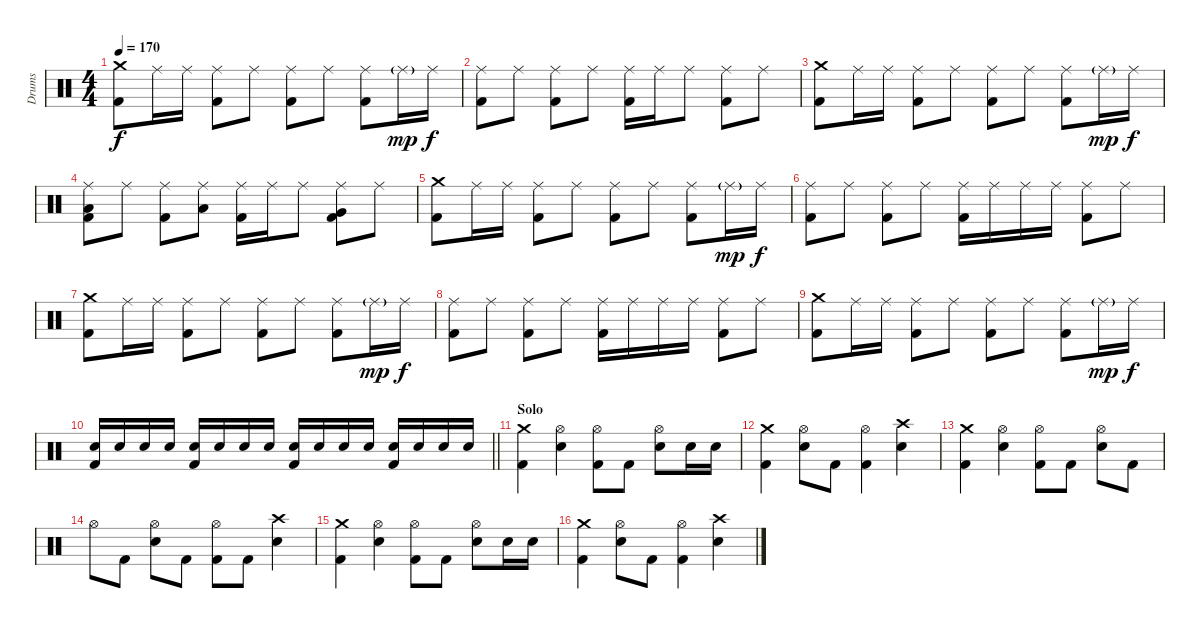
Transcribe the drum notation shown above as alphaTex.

\track ("Drums" "Drums") {instrument percussion}
\staff {score}
\articulation defaults
\ts (4 4)
\tempo 170
\clef neutral
\ks c
("Crash medium (hit)" "Kick (hit) 2").8{dy f} "Ride (middle)".16 "Ride (middle)".16 ("Ride (middle)" "Kick (hit) 2").8 "Ride (middle)".8 ("Ride (middle)" "Kick (hit) 2").8 "Ride (middle)".8 ("Ride (middle)" "Kick (hit) 2").8 "Ride (middle)"{g}.16{dy mp} "Ride (middle)".16{dy f} |
("Ride (middle)" "Kick (hit) 2").8 "Ride (middle)".8 ("Ride (middle)" "Kick (hit) 2").8 "Ride (middle)".8 ("Ride (middle)" "Kick (hit) 2").16 "Ride (middle)".16 "Ride (middle)".8 ("Ride (middle)" "Kick (hit) 2").8 "Ride (middle)".8 |
("Crash medium (hit)" "Kick (hit) 2").8 "Ride (middle)".16 "Ride (middle)".16 ("Ride (middle)" "Kick (hit) 2").8 "Ride (middle)".8 ("Ride (middle)" "Kick (hit) 2").8 "Ride (middle)".8 ("Ride (middle)" "Kick (hit) 2").8 "Ride (middle)"{g}.16{dy mp} "Ride (middle)".16{dy f} |
("Ride (middle)" "Low Floor Tom (hit)" "Kick (hit) 2").8 "Ride (middle)".8 ("Ride (middle)" "Kick (hit) 2").8 ("Ride (middle)" "Low Tom (hit)").8 ("Ride (middle)" "Kick (hit) 2").16 "Ride (middle)".16 "Ride (middle)".8 ("Ride (middle)" "Very Low Tom (hit)" "Kick (hit) 2").8 "Ride (middle)".8 |
("Crash medium (hit)" "Kick (hit) 2").8 "Ride (middle)".16 "Ride (middle)".16 ("Ride (middle)" "Kick (hit) 2").8 "Ride (middle)".8 ("Ride (middle)" "Kick (hit) 2").8 "Ride (middle)".8 ("Ride (middle)" "Kick (hit) 2").8 "Ride (middle)"{g}.16{dy mp} "Ride (middle)".16{dy f} |
("Ride (middle)" "Kick (hit) 2").8 "Ride (middle)".8 ("Ride (middle)" "Kick (hit) 2").8 "Ride (middle)".8 ("Ride (middle)" "Kick (hit) 2").16 "Ride (middle)".16 "Ride (middle)".16 "Ride (middle)".16 ("Ride (middle)" "Kick (hit) 2").8 "Ride (middle)".8 |
("Crash medium (hit)" "Kick (hit) 2").8 "Ride (middle)".16 "Ride (middle)".16 ("Ride (middle)" "Kick (hit) 2").8 "Ride (middle)".8 ("Ride (middle)" "Kick (hit) 2").8 "Ride (middle)".8 ("Ride (middle)" "Kick (hit) 2").8 "Ride (middle)"{g}.16{dy mp} "Ride (middle)".16{dy f} |
("Ride (middle)" "Kick (hit) 2").8 "Ride (middle)".8 ("Ride (middle)" "Kick (hit) 2").8 "Ride (middle)".8 ("Ride (middle)" "Kick (hit) 2").16 "Ride (middle)".16 "Ride (middle)".16 "Ride (middle)".16 ("Ride (middle)" "Kick (hit) 2").8 "Ride (middle)".8 |
("Crash medium (hit)" "Kick (hit) 2").8 "Ride (middle)".16 "Ride (middle)".16 ("Ride (middle)" "Kick (hit) 2").8 "Ride (middle)".8 ("Ride (middle)" "Kick (hit) 2").8 "Ride (middle)".8 ("Ride (middle)" "Kick (hit) 2").8 "Ride (middle)"{g}.16{dy mp} "Ride (middle)".16{dy f} |
\barLineRight lightlight
("Electric Snare (hit)" "Kick (hit) 2").16 "Electric Snare (hit)".16 "Electric Snare (hit)".16 "Electric Snare (hit)".16 ("Electric Snare (hit)" "Kick (hit) 2").16 "Electric Snare (hit)".16 "Electric Snare (hit)".16 "Electric Snare (hit)".16 ("Electric Snare (hit)" "Kick (hit) 2").16 "Electric Snare (hit)".16 "Electric Snare (hit)".16 "Electric Snare (hit)".16 ("Electric Snare (hit)" "Kick (hit) 2").16 "Electric Snare (hit)".16 "Electric Snare (hit)".16 "Electric Snare (hit)".16 |
\section ("" "Solo")
("Crash medium (hit)" "Kick (hit) 2").4 ("Hi-Hat (open)" "Electric Snare (hit)").4 ("Hi-Hat (open)" "Kick (hit) 2").8 "Kick (hit) 2".8 ("Hi-Hat (open)" "Electric Snare (hit)").8 "Electric Snare (hit)".16 "Electric Snare (hit)".16 |
("Crash medium (hit)" "Kick (hit) 2").4 ("Hi-Hat (open)" "Electric Snare (hit)").8 "Kick (hit) 2".8 ("Hi-Hat (open)" "Kick (hit) 2").4 ("Crash high (hit)" "Electric Snare (hit)").4 |
("Crash medium (hit)" "Kick (hit) 2").4 ("Hi-Hat (open)" "Electric Snare (hit)").4 ("Hi-Hat (open)" "Kick (hit) 2").8 "Kick (hit) 2".8 ("Hi-Hat (open)" "Electric Snare (hit)").8 "Kick (hit) 2".8 |
"Hi-Hat (open)".8 "Kick (hit) 2".8 ("Hi-Hat (open)" "Electric Snare (hit)").8 "Kick (hit) 2".8 ("Hi-Hat (open)" "Kick (hit) 2").8 "Kick (hit) 2".8 ("Crash high (hit)" "Electric Snare (hit)").4 |
("Crash medium (hit)" "Kick (hit) 2").4 ("Hi-Hat (open)" "Electric Snare (hit)").4 ("Hi-Hat (open)" "Kick (hit) 2").8 "Kick (hit) 2".8 ("Hi-Hat (open)" "Electric Snare (hit)").8 "Electric Snare (hit)".16 "Electric Snare (hit)".16 |
("Crash medium (hit)" "Kick (hit) 2").4 ("Hi-Hat (open)" "Electric Snare (hit)").8 "Kick (hit) 2".8 ("Hi-Hat (open)" "Kick (hit) 2").4 ("Crash high (hit)" "Electric Snare (hit)").4
